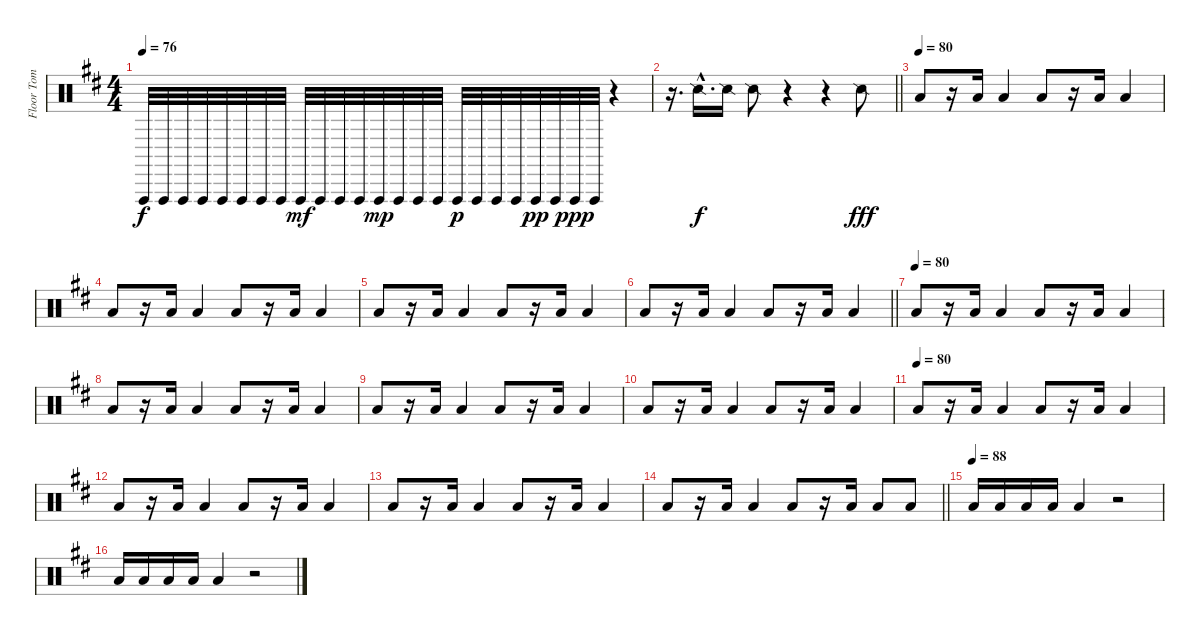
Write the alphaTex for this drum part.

\track ("Floor Tom" "Floor Tom") {instrument percussion}
\staff {score}
\articulation defaults
\ts (4 4)
\tempo 76
\clef neutral
\ks bminor "Vibraslap (hit)".32{dy f} "Vibraslap (hit)".32 "Vibraslap (hit)".32 "Vibraslap (hit)".32 "Vibraslap (hit)".32 "Vibraslap (hit)".32 "Vibraslap (hit)".32 "Vibraslap (hit)".32 "Vibraslap (hit)".32{dy mf} "Vibraslap (hit)".32 "Vibraslap (hit)".32 "Vibraslap (hit)".32 "Vibraslap (hit)".32{dy mp} "Vibraslap (hit)".32 "Vibraslap (hit)".32 "Vibraslap (hit)".32 "Vibraslap (hit)".32{dy p} "Vibraslap (hit)".32 "Vibraslap (hit)".32 "Vibraslap (hit)".32 "Vibraslap (hit)".32{dy pp} "Vibraslap (hit)".32 "Vibraslap (hit)".32{dy ppp} "Vibraslap (hit)".32
r.4 |
\barLineRight lightlight
r.16{d} "Snare (side stick) 2"{hac}.16{d dy f} "Snare (side stick) 2".16 "Snare (side stick) 2".8 r.4 r.4 "Snare (side stick) 2".8{dy fff} |
\tempo (80)
"Low Floor Tom (hit)".8 r.16 "Low Floor Tom (hit)".16 "Low Floor Tom (hit)".4 "Low Floor Tom (hit)".8 r.16 "Low Floor Tom (hit)".16 "Low Floor Tom (hit)".4 |
"Low Floor Tom (hit)".8 r.16 "Low Floor Tom (hit)".16 "Low Floor Tom (hit)".4 "Low Floor Tom (hit)".8 r.16 "Low Floor Tom (hit)".16 "Low Floor Tom (hit)".4 |
"Low Floor Tom (hit)".8 r.16 "Low Floor Tom (hit)".16 "Low Floor Tom (hit)".4 "Low Floor Tom (hit)".8 r.16 "Low Floor Tom (hit)".16 "Low Floor Tom (hit)".4 |
\barLineRight lightlight "Low Floor Tom (hit)".8
r.16 "Low Floor Tom (hit)".16 "Low Floor Tom (hit)".4 "Low Floor Tom (hit)".8 r.16 "Low Floor Tom (hit)".16 "Low Floor Tom (hit)".4 |
\tempo (80)
"Low Floor Tom (hit)".8 r.16 "Low Floor Tom (hit)".16 "Low Floor Tom (hit)".4 "Low Floor Tom (hit)".8 r.16 "Low Floor Tom (hit)".16 "Low Floor Tom (hit)".4 |
"Low Floor Tom (hit)".8 r.16 "Low Floor Tom (hit)".16 "Low Floor Tom (hit)".4 "Low Floor Tom (hit)".8 r.16 "Low Floor Tom (hit)".16 "Low Floor Tom (hit)".4 |
"Low Floor Tom (hit)".8 r.16 "Low Floor Tom (hit)".16 "Low Floor Tom (hit)".4 "Low Floor Tom (hit)".8 r.16 "Low Floor Tom (hit)".16 "Low Floor Tom (hit)".4 |
"Low Floor Tom (hit)".8 r.16 "Low Floor Tom (hit)".16 "Low Floor Tom (hit)".4 "Low Floor Tom (hit)".8 r.16 "Low Floor Tom (hit)".16 "Low Floor Tom (hit)".4 |
\tempo (80)
"Low Floor Tom (hit)".8 r.16 "Low Floor Tom (hit)".16 "Low Floor Tom (hit)".4 "Low Floor Tom (hit)".8 r.16 "Low Floor Tom (hit)".16 "Low Floor Tom (hit)".4 |
"Low Floor Tom (hit)".8 r.16 "Low Floor Tom (hit)".16 "Low Floor Tom (hit)".4 "Low Floor Tom (hit)".8 r.16 "Low Floor Tom (hit)".16 "Low Floor Tom (hit)".4 |
"Low Floor Tom (hit)".8 r.16 "Low Floor Tom (hit)".16 "Low Floor Tom (hit)".4 "Low Floor Tom (hit)".8 r.16 "Low Floor Tom (hit)".16 "Low Floor Tom (hit)".4 |
\barLineRight lightlight "Low Floor Tom (hit)".8
r.16 "Low Floor Tom (hit)".16 "Low Floor Tom (hit)".4 "Low Floor Tom (hit)".8 r.16 "Low Floor Tom (hit)".16 "Low Floor Tom (hit)".8 "Low Floor Tom (hit)".8 |
\tempo (88)
"Low Floor Tom (hit)".16 "Low Floor Tom (hit)".16 "Low Floor Tom (hit)".16 "Low Floor Tom (hit)".16 "Low Floor Tom (hit)".4 r.2 |
"Low Floor Tom (hit)".16 "Low Floor Tom (hit)".16 "Low Floor Tom (hit)".16 "Low Floor Tom (hit)".16 "Low Floor Tom (hit)".4 r.2
